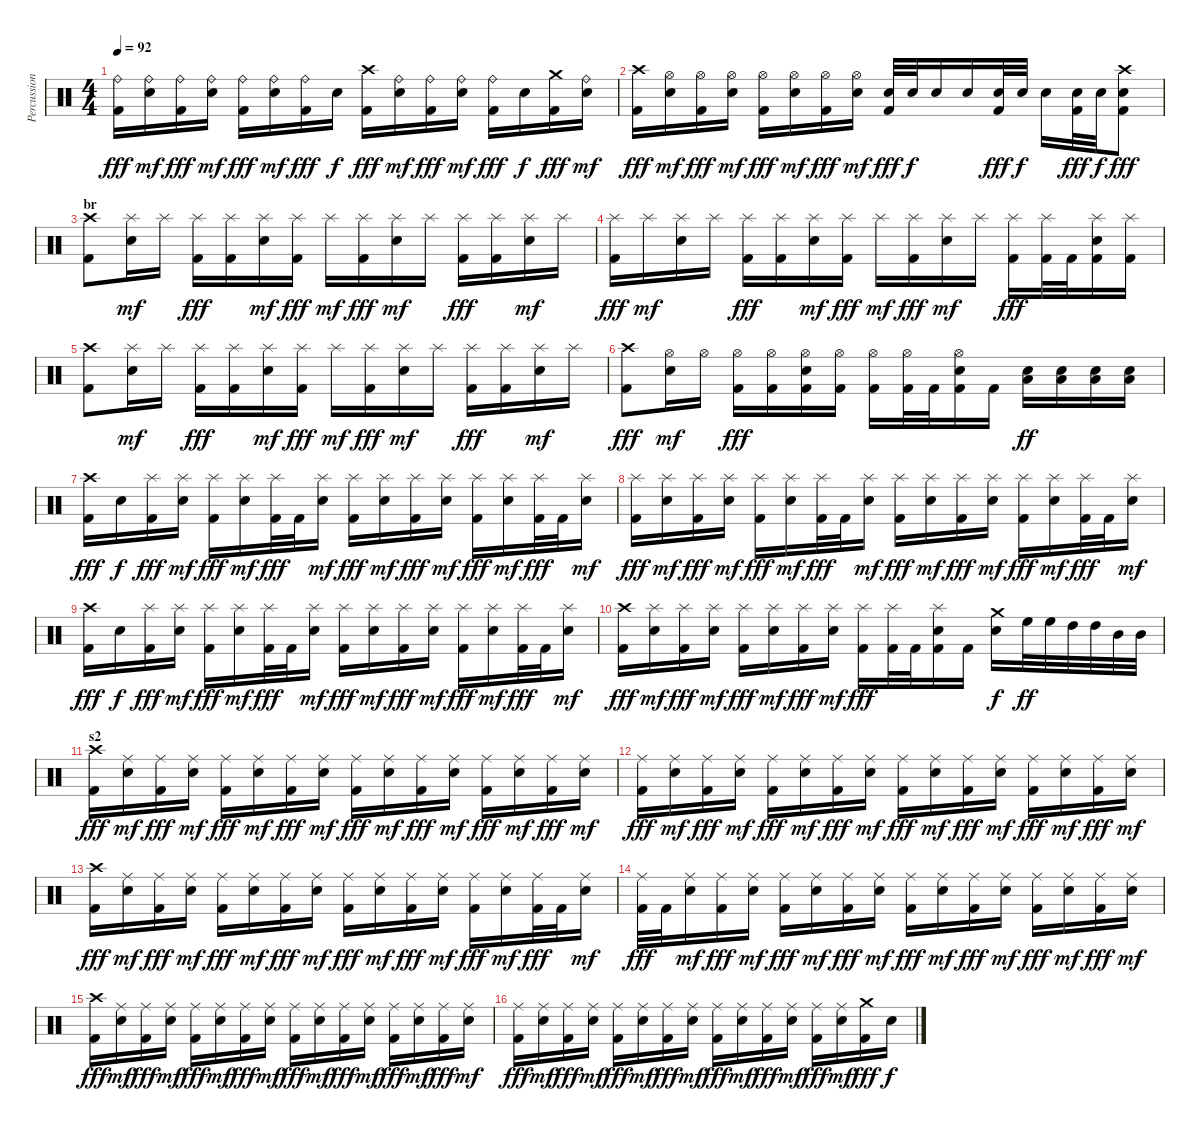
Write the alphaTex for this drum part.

\track ("Percussion" "Percussion") {instrument percussion}
\staff {score}
\articulation defaults
\ts (4 4)
\tempo 92
\clef neutral
\ks c
("Ride (bell)" "Kick (hit) 2").16{dy fff} ("Ride (bell)" "Electric Snare (hit)").16{dy mf} ("Ride (bell)" "Kick (hit) 2").16{dy fff} ("Ride (bell)" "Electric Snare (hit)").16{dy mf} ("Ride (bell)" "Kick (hit) 2").16{dy fff} ("Ride (bell)" "Electric Snare (hit)").16{dy mf} ("Ride (bell)" "Kick (hit) 2").16{dy fff} "Electric Snare (hit)".16{dy f} ("Crash high (hit)" "Kick (hit) 2").16{dy fff} ("Ride (bell)" "Electric Snare (hit)").16{dy mf} ("Ride (bell)" "Kick (hit) 2").16{dy fff} ("Ride (bell)" "Electric Snare (hit)").16{dy mf} ("Ride (bell)" "Kick (hit) 2").16{dy fff} "Electric Snare (hit)".16{dy f} ("Crash medium (hit)" "Kick (hit) 2").16{dy fff} ("Ride (bell)" "Electric Snare (hit)").16{dy mf} |
("Crash high (hit)" "Kick (hit) 2").16{dy fff} ("Hi-Hat (open)" "Electric Snare (hit)").16{dy mf} ("Hi-Hat (open)" "Kick (hit) 2").16{dy fff} ("Hi-Hat (open)" "Electric Snare (hit)").16{dy mf} ("Hi-Hat (open)" "Kick (hit) 2").16{dy fff} ("Hi-Hat (open)" "Electric Snare (hit)").16{dy mf} ("Hi-Hat (open)" "Kick (hit) 2").16{dy fff} ("Hi-Hat (open)" "Electric Snare (hit)").16{dy mf} ("Electric Snare (hit)" "Kick (hit) 2").32{dy fff} "Electric Snare (hit)".32{dy f} "Electric Snare (hit)".16 "Electric Snare (hit)".16 ("Electric Snare (hit)" "Kick (hit) 2").32{dy fff} "Electric Snare (hit)".32{dy f} "Electric Snare (hit)".16 ("Electric Snare (hit)" "Kick (hit) 2").32{dy fff} "Electric Snare (hit)".32{dy f} ("Crash high (hit)" "Electric Snare (hit)" "Kick (hit) 2").8{dy fff} |
\section ("" "br")
("Crash high (hit)" "Kick (hit) 2").8 ("Splash (hit)" "Electric Snare (hit)").16{dy mf} "Splash (hit)".16 ("Splash (hit)" "Kick (hit) 2").16{dy fff} ("Splash (hit)" "Kick (hit) 2").16 ("Splash (hit)" "Electric Snare (hit)").16{dy mf} ("Splash (hit)" "Kick (hit) 2").16{dy fff} "Splash (hit)".16{dy mf} ("Splash (hit)" "Kick (hit) 2").16{dy fff} ("Splash (hit)" "Electric Snare (hit)").16{dy mf} "Splash (hit)".16 ("Splash (hit)" "Kick (hit) 2").16{dy fff} ("Splash (hit)" "Kick (hit) 2").16 ("Splash (hit)" "Electric Snare (hit)").16{dy mf} "Splash (hit)".16 |
("Splash (hit)" "Kick (hit) 2").16{dy fff} "Splash (hit)".16{dy mf} ("Splash (hit)" "Electric Snare (hit)").16 "Splash (hit)".16 ("Splash (hit)" "Kick (hit) 2").16{dy fff} ("Splash (hit)" "Kick (hit) 2").16 ("Splash (hit)" "Electric Snare (hit)").16{dy mf} ("Splash (hit)" "Kick (hit) 2").16{dy fff} "Splash (hit)".16{dy mf} ("Splash (hit)" "Kick (hit) 2").16{dy fff} ("Splash (hit)" "Electric Snare (hit)").16{dy mf} "Splash (hit)".16 ("Splash (hit)" "Kick (hit) 2").16{dy fff} ("Splash (hit)" "Kick (hit) 2").32 "Kick (hit) 2".32 ("Splash (hit)" "Electric Snare (hit)" "Kick (hit) 2").16 ("Splash (hit)" "Kick (hit) 2").16 |
("Crash high (hit)" "Kick (hit) 2").8 ("Splash (hit)" "Electric Snare (hit)").16{dy mf} "Splash (hit)".16 ("Splash (hit)" "Kick (hit) 2").16{dy fff} ("Splash (hit)" "Kick (hit) 2").16 ("Splash (hit)" "Electric Snare (hit)").16{dy mf} ("Splash (hit)" "Kick (hit) 2").16{dy fff} "Splash (hit)".16{dy mf} ("Splash (hit)" "Kick (hit) 2").16{dy fff} ("Splash (hit)" "Electric Snare (hit)").16{dy mf} "Splash (hit)".16 ("Splash (hit)" "Kick (hit) 2").16{dy fff} ("Splash (hit)" "Kick (hit) 2").16 ("Splash (hit)" "Electric Snare (hit)").16{dy mf} "Splash (hit)".16 |
("Crash high (hit)" "Kick (hit) 2").8{dy fff} ("Hi-Hat (open)" "Electric Snare (hit)").16{dy mf} "Hi-Hat (open)".16 ("Hi-Hat (open)" "Kick (hit) 2").16{dy fff} ("Hi-Hat (open)" "Kick (hit) 2").16 ("Hi-Hat (open)" "Electric Snare (hit)" "Kick (hit) 2").16 ("Hi-Hat (open)" "Kick (hit) 2").16 ("Hi-Hat (open)" "Kick (hit) 2").16 ("Hi-Hat (open)" "Kick (hit) 2").32 "Kick (hit) 2".32 ("Hi-Hat (open)" "Electric Snare (hit)" "Kick (hit) 2").16 "Kick (hit) 2".16 ("Low Tom (hit)" "Electric Snare (hit)").16{dy ff} ("Low Tom (hit)" "Electric Snare (hit)").16 ("Low Tom (hit)" "Electric Snare (hit)").16 ("Low Tom (hit)" "Electric Snare (hit)").16 |
("Crash high (hit)" "Kick (hit) 2").16{dy fff} "Electric Snare (hit)".16{dy f} ("Splash (hit)" "Kick (hit) 2").16{dy fff} ("Splash (hit)" "Electric Snare (hit)").16{dy mf} ("Splash (hit)" "Kick (hit) 2").16{dy fff} ("Splash (hit)" "Electric Snare (hit)").16{dy mf} ("Splash (hit)" "Kick (hit) 2").32{dy fff} "Kick (hit) 2".32 ("Splash (hit)" "Electric Snare (hit)").16{dy mf} ("Splash (hit)" "Kick (hit) 2").16{dy fff} ("Splash (hit)" "Electric Snare (hit)").16{dy mf} ("Splash (hit)" "Kick (hit) 2").16{dy fff} ("Splash (hit)" "Electric Snare (hit)").16{dy mf} ("Splash (hit)" "Kick (hit) 2").16{dy fff} ("Splash (hit)" "Electric Snare (hit)").16{dy mf} ("Splash (hit)" "Kick (hit) 2").32{dy fff} "Kick (hit) 2".32 ("Splash (hit)" "Electric Snare (hit)").16{dy mf} |
("Splash (hit)" "Kick (hit) 2").16{dy fff} ("Splash (hit)" "Electric Snare (hit)").16{dy mf} ("Splash (hit)" "Kick (hit) 2").16{dy fff} ("Splash (hit)" "Electric Snare (hit)").16{dy mf} ("Splash (hit)" "Kick (hit) 2").16{dy fff} ("Splash (hit)" "Electric Snare (hit)").16{dy mf} ("Splash (hit)" "Kick (hit) 2").32{dy fff} "Kick (hit) 2".32 ("Splash (hit)" "Electric Snare (hit)").16{dy mf} ("Splash (hit)" "Kick (hit) 2").16{dy fff} ("Splash (hit)" "Electric Snare (hit)").16{dy mf} ("Splash (hit)" "Kick (hit) 2").16{dy fff} ("Splash (hit)" "Electric Snare (hit)").16{dy mf} ("Splash (hit)" "Kick (hit) 2").16{dy fff} ("Splash (hit)" "Electric Snare (hit)").16{dy mf} ("Splash (hit)" "Kick (hit) 2").32{dy fff} "Kick (hit) 2".32 ("Splash (hit)" "Electric Snare (hit)").16{dy mf} |
("Crash high (hit)" "Kick (hit) 2").16{dy fff} "Electric Snare (hit)".16{dy f} ("Splash (hit)" "Kick (hit) 2").16{dy fff} ("Splash (hit)" "Electric Snare (hit)").16{dy mf} ("Splash (hit)" "Kick (hit) 2").16{dy fff} ("Splash (hit)" "Electric Snare (hit)").16{dy mf} ("Splash (hit)" "Kick (hit) 2").32{dy fff} "Kick (hit) 2".32 ("Splash (hit)" "Electric Snare (hit)").16{dy mf} ("Splash (hit)" "Kick (hit) 2").16{dy fff} ("Splash (hit)" "Electric Snare (hit)").16{dy mf} ("Splash (hit)" "Kick (hit) 2").16{dy fff} ("Splash (hit)" "Electric Snare (hit)").16{dy mf} ("Splash (hit)" "Kick (hit) 2").16{dy fff} ("Splash (hit)" "Electric Snare (hit)").16{dy mf} ("Splash (hit)" "Kick (hit) 2").32{dy fff} "Kick (hit) 2".32 ("Splash (hit)" "Electric Snare (hit)").16{dy mf} |
("Crash high (hit)" "Kick (hit) 2").16{dy fff} ("Splash (hit)" "Electric Snare (hit)").16{dy mf} ("Splash (hit)" "Kick (hit) 2").16{dy fff} ("Splash (hit)" "Electric Snare (hit)").16{dy mf} ("Splash (hit)" "Kick (hit) 2").16{dy fff} ("Splash (hit)" "Electric Snare (hit)").16{dy mf} ("Splash (hit)" "Kick (hit) 2").16{dy fff} ("Splash (hit)" "Electric Snare (hit)").16{dy mf} ("Splash (hit)" "Kick (hit) 2").16{dy fff} ("Splash (hit)" "Kick (hit) 2").32 "Kick (hit) 2".32 ("Splash (hit)" "Electric Snare (hit)" "Kick (hit) 2").16 "Kick (hit) 2".16 ("Crash medium (hit)" "Electric Snare (hit)").16{dy f} "High Floor Tom (hit)".32{dy ff} "High Floor Tom (hit)".32 "High Tom (hit)".32 "High Tom (hit)".32 "Mid Tom (hit)".32 "Mid Tom (hit)".32 |
\section ("" "s2")
("Crash high (hit)" "Kick (hit) 2").16{dy fff} ("Ride (middle)" "Electric Snare (hit)").16{dy mf} ("Ride (middle)" "Kick (hit) 2").16{dy fff} ("Ride (middle)" "Electric Snare (hit)").16{dy mf} ("Ride (middle)" "Kick (hit) 2").16{dy fff} ("Ride (middle)" "Electric Snare (hit)").16{dy mf} ("Ride (middle)" "Kick (hit) 2").16{dy fff} ("Ride (middle)" "Electric Snare (hit)").16{dy mf} ("Ride (middle)" "Kick (hit) 2").16{dy fff} ("Ride (middle)" "Electric Snare (hit)").16{dy mf} ("Ride (middle)" "Kick (hit) 2").16{dy fff} ("Ride (middle)" "Electric Snare (hit)").16{dy mf} ("Ride (middle)" "Kick (hit) 2").16{dy fff} ("Ride (middle)" "Electric Snare (hit)").16{dy mf} ("Ride (middle)" "Kick (hit) 2").16{dy fff} ("Ride (middle)" "Electric Snare (hit)").16{dy mf} |
("Ride (middle)" "Kick (hit) 2").16{dy fff} ("Ride (middle)" "Electric Snare (hit)").16{dy mf} ("Ride (middle)" "Kick (hit) 2").16{dy fff} ("Ride (middle)" "Electric Snare (hit)").16{dy mf} ("Ride (middle)" "Kick (hit) 2").16{dy fff} ("Ride (middle)" "Electric Snare (hit)").16{dy mf} ("Ride (middle)" "Kick (hit) 2").16{dy fff} ("Ride (middle)" "Electric Snare (hit)").16{dy mf} ("Ride (middle)" "Kick (hit) 2").16{dy fff} ("Ride (middle)" "Electric Snare (hit)").16{dy mf} ("Ride (middle)" "Kick (hit) 2").16{dy fff} ("Ride (middle)" "Electric Snare (hit)").16{dy mf} ("Ride (middle)" "Kick (hit) 2").16{dy fff} ("Ride (middle)" "Electric Snare (hit)").16{dy mf} ("Ride (middle)" "Kick (hit) 2").16{dy fff} ("Ride (middle)" "Electric Snare (hit)").16{dy mf} |
("Crash high (hit)" "Kick (hit) 2").16{dy fff} ("Ride (middle)" "Electric Snare (hit)").16{dy mf} ("Ride (middle)" "Kick (hit) 2").16{dy fff} ("Ride (middle)" "Electric Snare (hit)").16{dy mf} ("Ride (middle)" "Kick (hit) 2").16{dy fff} ("Ride (middle)" "Electric Snare (hit)").16{dy mf} ("Ride (middle)" "Kick (hit) 2").16{dy fff} ("Ride (middle)" "Electric Snare (hit)").16{dy mf} ("Ride (middle)" "Kick (hit) 2").16{dy fff} ("Ride (middle)" "Electric Snare (hit)").16{dy mf} ("Ride (middle)" "Kick (hit) 2").16{dy fff} ("Ride (middle)" "Electric Snare (hit)").16{dy mf} ("Ride (middle)" "Kick (hit) 2").16{dy fff} ("Ride (middle)" "Electric Snare (hit)").16{dy mf} ("Ride (middle)" "Kick (hit) 2").32{dy fff} "Kick (hit) 2".32 ("Ride (middle)" "Electric Snare (hit)").16{dy mf} |
("Ride (middle)" "Kick (hit) 2").32{dy fff} "Kick (hit) 2".32 ("Ride (middle)" "Electric Snare (hit)").16{dy mf} ("Ride (middle)" "Kick (hit) 2").16{dy fff} ("Ride (middle)" "Electric Snare (hit)").16{dy mf} ("Ride (middle)" "Kick (hit) 2").16{dy fff} ("Ride (middle)" "Electric Snare (hit)").16{dy mf} ("Ride (middle)" "Kick (hit) 2").16{dy fff} ("Ride (middle)" "Electric Snare (hit)").16{dy mf} ("Ride (middle)" "Kick (hit) 2").16{dy fff} ("Ride (middle)" "Electric Snare (hit)").16{dy mf} ("Ride (middle)" "Kick (hit) 2").16{dy fff} ("Ride (middle)" "Electric Snare (hit)").16{dy mf} ("Ride (middle)" "Kick (hit) 2").16{dy fff} ("Ride (middle)" "Electric Snare (hit)").16{dy mf} ("Ride (middle)" "Kick (hit) 2").16{dy fff} ("Ride (middle)" "Electric Snare (hit)").16{dy mf} |
("Crash high (hit)" "Kick (hit) 2").16{dy fff} ("Ride (middle)" "Electric Snare (hit)").16{dy mf} ("Ride (middle)" "Kick (hit) 2").16{dy fff} ("Ride (middle)" "Electric Snare (hit)").16{dy mf} ("Ride (middle)" "Kick (hit) 2").16{dy fff} ("Ride (middle)" "Electric Snare (hit)").16{dy mf} ("Ride (middle)" "Kick (hit) 2").16{dy fff} ("Ride (middle)" "Electric Snare (hit)").16{dy mf} ("Ride (middle)" "Kick (hit) 2").16{dy fff} ("Ride (middle)" "Electric Snare (hit)").16{dy mf} ("Ride (middle)" "Kick (hit) 2").16{dy fff} ("Ride (middle)" "Electric Snare (hit)").16{dy mf} ("Ride (middle)" "Kick (hit) 2").16{dy fff} ("Ride (middle)" "Electric Snare (hit)").16{dy mf} ("Ride (middle)" "Kick (hit) 2").16{dy fff} ("Ride (middle)" "Electric Snare (hit)").16{dy mf} |
("Ride (middle)" "Kick (hit) 2").16{dy fff} ("Ride (middle)" "Electric Snare (hit)").16{dy mf} ("Ride (middle)" "Kick (hit) 2").16{dy fff} ("Ride (middle)" "Electric Snare (hit)").16{dy mf} ("Ride (middle)" "Kick (hit) 2").16{dy fff} ("Ride (middle)" "Electric Snare (hit)").16{dy mf} ("Ride (middle)" "Kick (hit) 2").16{dy fff} ("Ride (middle)" "Electric Snare (hit)").16{dy mf} ("Ride (middle)" "Kick (hit) 2").16{dy fff} ("Ride (middle)" "Electric Snare (hit)").16{dy mf} ("Ride (middle)" "Kick (hit) 2").16{dy fff} ("Ride (middle)" "Electric Snare (hit)").16{dy mf} ("Ride (middle)" "Kick (hit) 2").16{dy fff} ("Ride (middle)" "Electric Snare (hit)").16{dy mf} ("Crash medium (hit)" "Kick (hit) 2").16{dy fff} "Electric Snare (hit)".16{dy f}
